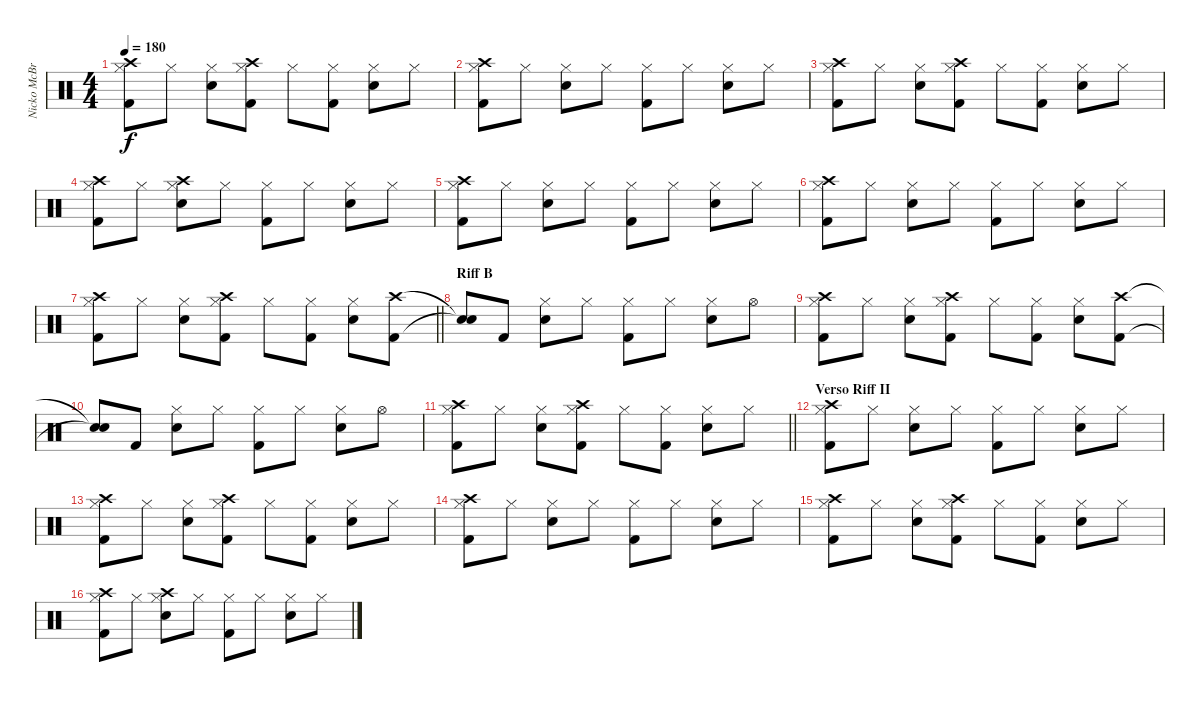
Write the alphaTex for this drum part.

\track ("Nicko McBrain" "Nicko McBr") {instrument percussion}
\staff {score}
\articulation defaults
\ts (4 4)
\tempo 180
\clef neutral
\ks c
("Hi-Hat (closed)" "Kick (hit) 2" "Crash high (hit)").8{dy f} "Hi-Hat (closed)".8 ("Hi-Hat (closed)" "Snare (hit) 2").8 ("Hi-Hat (closed)" "Kick (hit) 2" "Crash high (hit)").8 "Hi-Hat (closed)".8 ("Hi-Hat (closed)" "Kick (hit) 2").8 ("Hi-Hat (closed)" "Snare (hit) 2").8 "Hi-Hat (closed)".8 |
("Hi-Hat (closed)" "Kick (hit) 2" "Crash high (hit)").8 "Hi-Hat (closed)".8 ("Hi-Hat (closed)" "Snare (hit) 2").8 "Hi-Hat (closed)".8 ("Hi-Hat (closed)" "Kick (hit) 2").8 "Hi-Hat (closed)".8 ("Hi-Hat (closed)" "Snare (hit) 2").8 "Hi-Hat (closed)".8 |
("Hi-Hat (closed)" "Kick (hit) 2" "Crash high (hit)").8 "Hi-Hat (closed)".8 ("Hi-Hat (closed)" "Snare (hit) 2").8 ("Hi-Hat (closed)" "Kick (hit) 2" "Crash high (hit)").8 "Hi-Hat (closed)".8 ("Hi-Hat (closed)" "Kick (hit) 2").8 ("Hi-Hat (closed)" "Snare (hit) 2").8 "Hi-Hat (closed)".8 |
("Hi-Hat (closed)" "Kick (hit) 2" "Crash high (hit)").8 "Hi-Hat (closed)".8 ("Hi-Hat (closed)" "Snare (hit) 2" "Crash high (hit)").8 "Hi-Hat (closed)".8 ("Hi-Hat (closed)" "Kick (hit) 2").8 "Hi-Hat (closed)".8 ("Hi-Hat (closed)" "Snare (hit) 2").8 "Hi-Hat (closed)".8 |
("Hi-Hat (closed)" "Kick (hit) 2" "Crash high (hit)").8 "Hi-Hat (closed)".8 ("Hi-Hat (closed)" "Snare (hit) 2").8 "Hi-Hat (closed)".8 ("Hi-Hat (closed)" "Kick (hit) 2").8 "Hi-Hat (closed)".8 ("Hi-Hat (closed)" "Snare (hit) 2").8 "Hi-Hat (closed)".8 |
("Hi-Hat (closed)" "Kick (hit) 2" "Crash high (hit)").8 "Hi-Hat (closed)".8 ("Hi-Hat (closed)" "Snare (hit) 2").8 "Hi-Hat (closed)".8 ("Hi-Hat (closed)" "Kick (hit) 2").8 "Hi-Hat (closed)".8 ("Hi-Hat (closed)" "Snare (hit) 2").8 "Hi-Hat (closed)".8 |
\barLineRight lightlight
("Kick (hit) 2" "Hi-Hat (closed)" "Crash high (hit)").8 "Hi-Hat (closed)".8 ("Snare (hit) 2" "Hi-Hat (closed)").8 ("Kick (hit) 2" "Hi-Hat (closed)" "Crash high (hit)").8 "Hi-Hat (closed)".8 ("Kick (hit) 2" "Hi-Hat (closed)").8 ("Snare (hit) 2" "Hi-Hat (closed)").8 ("Kick (hit) 2" "Crash high (hit)").8 |
\section ("" "Riff B")
("Snare (hit)"{t} "Snare (hit)"{t}).8 "Kick (hit) 2".8 ("Snare (hit) 2" "Hi-Hat (closed)").8 "Hi-Hat (closed)".8 ("Kick (hit) 2" "Hi-Hat (closed)").8 "Hi-Hat (closed)".8 ("Snare (hit) 2" "Hi-Hat (closed)").8 "Hi-Hat (open)".8 |
("Kick (hit) 2" "Hi-Hat (closed)" "Crash high (hit)").8 "Hi-Hat (closed)".8 ("Snare (hit) 2" "Hi-Hat (closed)").8 ("Kick (hit) 2" "Hi-Hat (closed)" "Crash high (hit)").8 "Hi-Hat (closed)".8 ("Kick (hit) 2" "Hi-Hat (closed)").8 ("Snare (hit) 2" "Hi-Hat (closed)").8 ("Kick (hit) 2" "Crash high (hit)").8 |
("Snare (hit)"{t} "Snare (hit)"{t}).8 "Kick (hit) 2".8 ("Snare (hit) 2" "Hi-Hat (closed)").8 "Hi-Hat (closed)".8 ("Kick (hit) 2" "Hi-Hat (closed)").8 "Hi-Hat (closed)".8 ("Snare (hit) 2" "Hi-Hat (closed)").8 "Hi-Hat (open)".8 |
\barLineRight lightlight
("Kick (hit) 2" "Hi-Hat (closed)" "Crash high (hit)").8 "Hi-Hat (closed)".8 ("Snare (hit) 2" "Hi-Hat (closed)").8 ("Kick (hit) 2" "Hi-Hat (closed)" "Crash high (hit)").8 "Hi-Hat (closed)".8 ("Kick (hit) 2" "Hi-Hat (closed)").8 ("Snare (hit) 2" "Hi-Hat (closed)").8 "Hi-Hat (closed)".8 |
\section ("" "Verso Riff II")
("Hi-Hat (closed)" "Kick (hit) 2" "Crash high (hit)").8 "Hi-Hat (closed)".8 ("Hi-Hat (closed)" "Snare (hit) 2").8 "Hi-Hat (closed)".8 ("Hi-Hat (closed)" "Kick (hit) 2").8 "Hi-Hat (closed)".8 ("Hi-Hat (closed)" "Snare (hit) 2").8 "Hi-Hat (closed)".8 |
("Hi-Hat (closed)" "Kick (hit) 2" "Crash high (hit)").8 "Hi-Hat (closed)".8 ("Hi-Hat (closed)" "Snare (hit) 2").8 ("Hi-Hat (closed)" "Kick (hit) 2" "Crash high (hit)").8 "Hi-Hat (closed)".8 ("Hi-Hat (closed)" "Kick (hit) 2").8 ("Hi-Hat (closed)" "Snare (hit) 2").8 "Hi-Hat (closed)".8 |
("Hi-Hat (closed)" "Kick (hit) 2" "Crash high (hit)").8 "Hi-Hat (closed)".8 ("Hi-Hat (closed)" "Snare (hit) 2").8 "Hi-Hat (closed)".8 ("Hi-Hat (closed)" "Kick (hit) 2").8 "Hi-Hat (closed)".8 ("Hi-Hat (closed)" "Snare (hit) 2").8 "Hi-Hat (closed)".8 |
("Hi-Hat (closed)" "Kick (hit) 2" "Crash high (hit)").8 "Hi-Hat (closed)".8 ("Hi-Hat (closed)" "Snare (hit) 2").8 ("Hi-Hat (closed)" "Kick (hit) 2" "Crash high (hit)").8 "Hi-Hat (closed)".8 ("Hi-Hat (closed)" "Kick (hit) 2").8 ("Hi-Hat (closed)" "Snare (hit) 2").8 "Hi-Hat (closed)".8 |
("Hi-Hat (closed)" "Kick (hit) 2" "Crash high (hit)").8 "Hi-Hat (closed)".8 ("Hi-Hat (closed)" "Snare (hit) 2" "Crash high (hit)").8 "Hi-Hat (closed)".8 ("Hi-Hat (closed)" "Kick (hit) 2").8 "Hi-Hat (closed)".8 ("Hi-Hat (closed)" "Snare (hit) 2").8 "Hi-Hat (closed)".8
